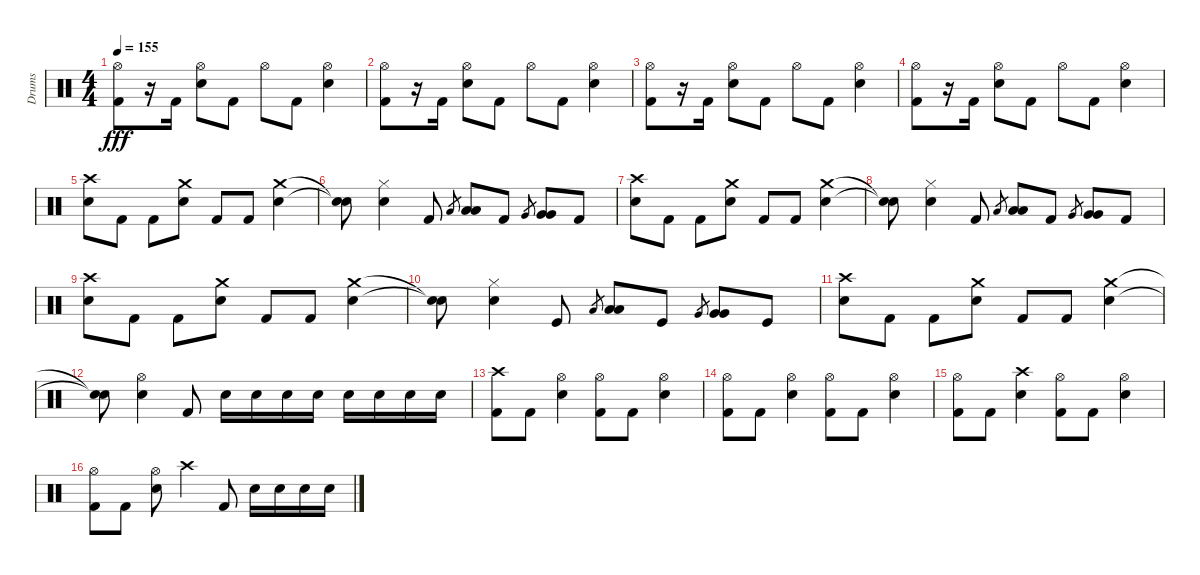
\track ("Drums" "Drums") {instrument percussion}
\staff {score}
\articulation defaults
\ts (4 4)
\tempo 155
\clef neutral
\ks c
("Hi-Hat (open)" "Kick (hit) 2").8{dy fff} r.16 "Kick (hit) 2".16 ("Hi-Hat (open)" "Electric Snare (hit)").8 "Kick (hit) 2".8 "Hi-Hat (open)".8 "Kick (hit) 2".8 ("Hi-Hat (open)" "Electric Snare (hit)").4 |
("Hi-Hat (open)" "Kick (hit) 2").8 r.16 "Kick (hit) 2".16 ("Hi-Hat (open)" "Electric Snare (hit)").8 "Kick (hit) 2".8 "Hi-Hat (open)".8 "Kick (hit) 2".8 ("Hi-Hat (open)" "Electric Snare (hit)").4 |
("Hi-Hat (open)" "Kick (hit) 2").8 r.16 "Kick (hit) 2".16 ("Hi-Hat (open)" "Electric Snare (hit)").8 "Kick (hit) 2".8 "Hi-Hat (open)".8 "Kick (hit) 2".8 ("Hi-Hat (open)" "Electric Snare (hit)").4 |
("Hi-Hat (open)" "Kick (hit) 2").8 r.16 "Kick (hit) 2".16 ("Hi-Hat (open)" "Electric Snare (hit)").8 "Kick (hit) 2".8 "Hi-Hat (open)".8 "Kick (hit) 2".8 ("Hi-Hat (open)" "Electric Snare (hit)").4 |
("Crash high (hit)" "Electric Snare (hit)").8 "Kick (hit) 2".8 "Kick (hit) 2".8 ("Crash medium (hit)" "Electric Snare (hit)").8 "Kick (hit) 2".8 "Kick (hit) 2".8 ("Crash medium (hit)" "Electric Snare (hit)").4 |
("Snare (hit)"{t} "Snare (hit)"{t}).8 ("Hi-Hat (closed)" "Electric Snare (hit)").4 "Kick (hit) 2".8 "Low Tom (hit)".8{gr} ("Low Tom (hit)" "Low Tom (hit)").8 "Kick (hit) 2".8 "Very Low Tom (hit)".8{gr} ("Very Low Tom (hit)" "Very Low Tom (hit)").8 "Kick (hit) 2".8 |
("Crash high (hit)" "Electric Snare (hit)").8 "Kick (hit) 2".8 "Kick (hit) 2".8 ("Crash medium (hit)" "Electric Snare (hit)").8 "Kick (hit) 2".8 "Kick (hit) 2".8 ("Crash medium (hit)" "Electric Snare (hit)").4 |
("Snare (hit)"{t} "Snare (hit)"{t}).8 ("Hi-Hat (closed)" "Electric Snare (hit)").4 "Kick (hit) 2".8 "Low Tom (hit)".8{gr} ("Low Tom (hit)" "Low Tom (hit)").8 "Kick (hit) 2".8 "Very Low Tom (hit)".8{gr} ("Very Low Tom (hit)" "Very Low Tom (hit)").8 "Kick (hit) 2".8 |
("Crash high (hit)" "Electric Snare (hit)").8 "Kick (hit) 2".8 "Kick (hit) 2".8 ("Crash medium (hit)" "Electric Snare (hit)").8 "Kick (hit) 2".8 "Kick (hit) 2".8 ("Crash medium (hit)" "Electric Snare (hit)").4 |
("Snare (hit)"{t} "Snare (hit)"{t}).8 ("Hi-Hat (closed)" "Electric Snare (hit)").4 "Kick (hit)".8 "Low Tom (hit)".8{gr} ("Low Tom (hit)" "Low Tom (hit)").8 "Kick (hit)".8 "Very Low Tom (hit)".8{gr} ("Very Low Tom (hit)" "Very Low Tom (hit)").8 "Kick (hit)".8 |
("Crash high (hit)" "Electric Snare (hit)").8 "Kick (hit) 2".8 "Kick (hit) 2".8 ("Crash medium (hit)" "Electric Snare (hit)").8 "Kick (hit) 2".8 "Kick (hit) 2".8 ("Crash medium (hit)" "Electric Snare (hit)").4 |
("Snare (hit)"{t} "Snare (hit)"{t}).8 ("Hi-Hat (open)" "Electric Snare (hit)").4 "Kick (hit) 2".8 "Electric Snare (hit)".16 "Electric Snare (hit)".16 "Electric Snare (hit)".16 "Electric Snare (hit)".16 "Electric Snare (hit)".16 "Electric Snare (hit)".16 "Electric Snare (hit)".16 "Electric Snare (hit)".16 |
("Crash high (hit)" "Kick (hit) 2").8 "Kick (hit) 2".8 ("Hi-Hat (open)" "Electric Snare (hit)").4 ("Hi-Hat (open)" "Kick (hit) 2").8 "Kick (hit) 2".8 ("Hi-Hat (open)" "Electric Snare (hit)").4 |
("Hi-Hat (open)" "Kick (hit) 2").8 "Kick (hit) 2".8 ("Hi-Hat (open)" "Electric Snare (hit)").4 ("Hi-Hat (open)" "Kick (hit) 2").8 "Kick (hit) 2".8 ("Hi-Hat (open)" "Electric Snare (hit)").4 |
("Hi-Hat (open)" "Kick (hit) 2").8 "Kick (hit) 2".8 ("Crash high (hit)" "Electric Snare (hit)").4 ("Hi-Hat (open)" "Kick (hit) 2").8 "Kick (hit) 2".8 ("Hi-Hat (open)" "Electric Snare (hit)").4 |
("Hi-Hat (open)" "Kick (hit) 2").8 "Kick (hit) 2".8 ("Hi-Hat (open)" "Electric Snare (hit)").8 "Crash high (hit)".4 "Kick (hit) 2".8 "Electric Snare (hit)".16 "Electric Snare (hit)".16 "Electric Snare (hit)".16 "Electric Snare (hit)".16
